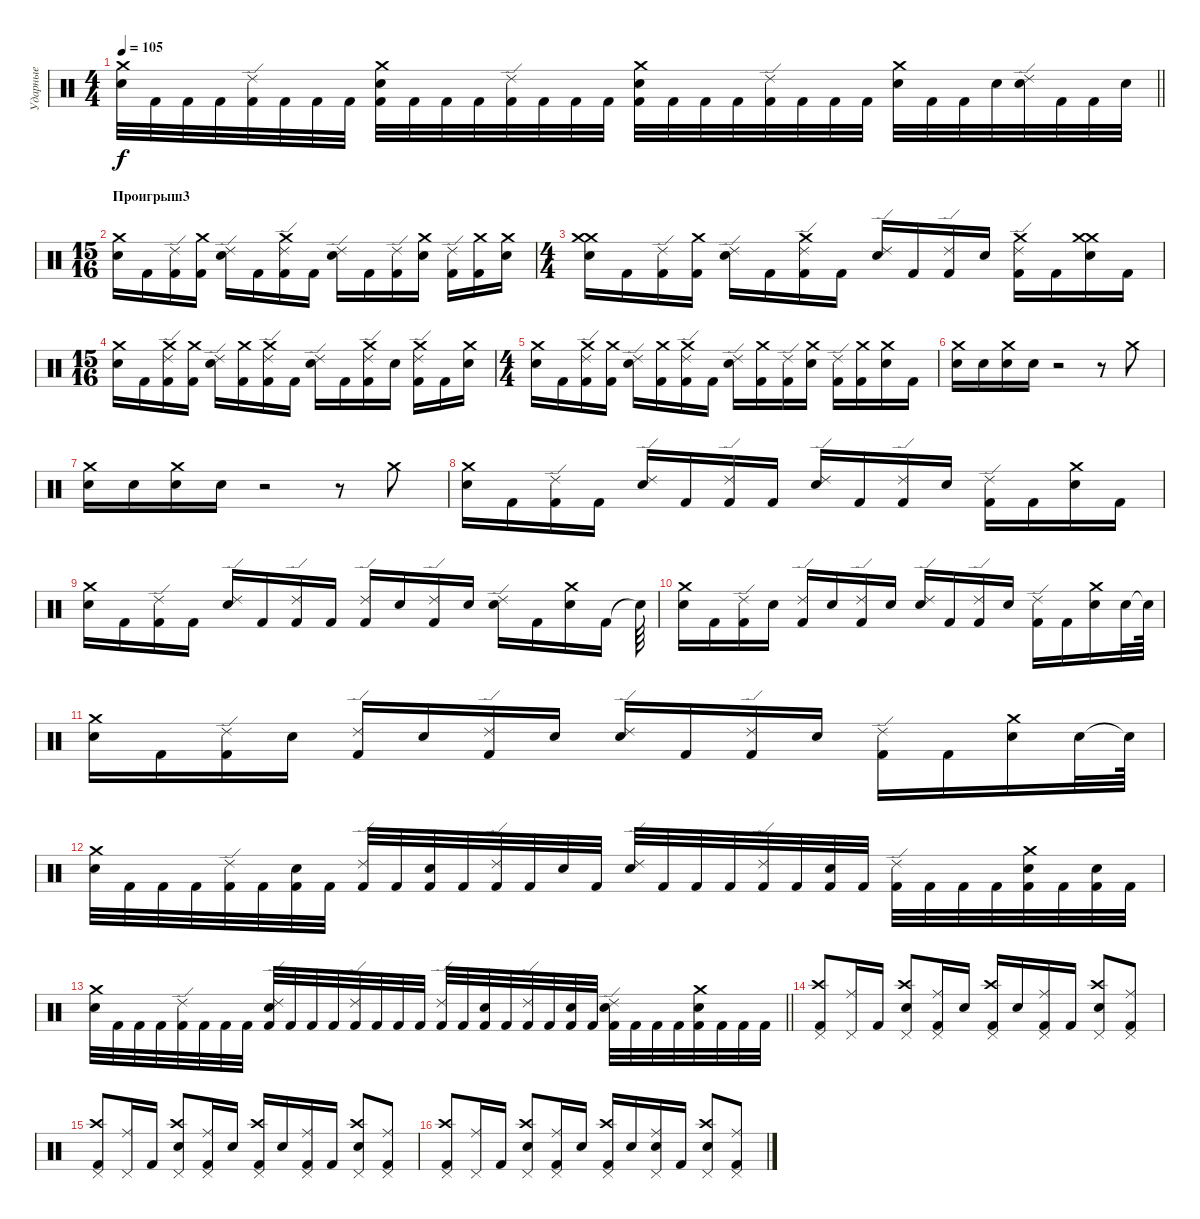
\track ("Ударные" "Ударные") {instrument percussion}
\staff {score}
\articulation defaults
\ts (4 4)
\tempo 105
\clef neutral
\barLineRight lightlight
\ks c
("Crash medium (hit)" "Electric Snare (hit)").32{dy f} "Kick (hit) 2".32 "Kick (hit) 2".32 "Kick (hit) 2".32 ("Ride (edge) 2" "Kick (hit) 2").32 "Kick (hit) 2".32 "Kick (hit) 2".32 "Kick (hit) 2".32 ("Crash medium (hit)" "Kick (hit) 2" "Electric Snare (hit)").32 "Kick (hit) 2".32 "Kick (hit) 2".32 "Kick (hit) 2".32 ("Ride (edge) 2" "Kick (hit) 2").32 "Kick (hit) 2".32 "Kick (hit) 2".32 "Kick (hit) 2".32 ("Crash medium (hit)" "Kick (hit) 2" "Electric Snare (hit)").32 "Kick (hit) 2".32 "Kick (hit) 2".32 "Kick (hit) 2".32 ("Ride (edge) 2" "Kick (hit) 2").32 "Kick (hit) 2".32 "Kick (hit) 2".32 "Kick (hit) 2".32 ("Crash medium (hit)" "Electric Snare (hit)").32 "Kick (hit) 2".32 "Kick (hit) 2".32 "Electric Snare (hit)".32 ("Ride (edge) 2" "Electric Snare (hit)").32 "Kick (hit) 2".32 "Kick (hit) 2".32 "Electric Snare (hit)".32 |
\ts (15 16)
\section ("" "Проигрыш3")
("Crash medium (hit)" "Electric Snare (hit)").16 "Kick (hit) 2".16 ("Ride (edge) 2" "Kick (hit) 2").16 ("Kick (hit) 2" "Crash medium (hit)").16 ("Ride (edge) 2" "Electric Snare (hit)").16 "Kick (hit) 2".16 ("Ride (edge) 2" "Kick (hit) 2" "Crash medium (hit)").16 "Kick (hit) 2".16 ("Ride (edge) 2" "Electric Snare (hit)").16 "Kick (hit) 2".16 ("Ride (edge) 2" "Kick (hit) 2").16 ("Electric Snare (hit)" "Crash medium (hit)").16 ("Ride (edge) 2" "Kick (hit) 2").16 ("Kick (hit) 2" "Crash medium (hit)").16 ("Crash medium (hit)" "Electric Snare (hit)").16 |
\ts (4 4)
("Crash medium (hit)" "Electric Snare (hit)" "Crash medium (hit)").16 "Kick (hit) 2".16 ("Ride (edge) 2" "Kick (hit) 2").16 ("Kick (hit) 2" "Crash medium (hit)").16 ("Ride (edge) 2" "Electric Snare (hit)").16 "Kick (hit) 2".16 ("Ride (edge) 2" "Kick (hit) 2" "Crash medium (hit)").16 "Kick (hit) 2".16 ("Ride (edge) 2" "Electric Snare (hit)").16 "Kick (hit) 2".16 ("Ride (edge) 2" "Kick (hit) 2").16 "Electric Snare (hit)".16 ("Ride (edge) 2" "Kick (hit) 2" "Crash medium (hit)").16 "Kick (hit) 2".16 ("Crash medium (hit)" "Electric Snare (hit)" "Crash medium (hit)").16 "Kick (hit) 2".16 |
\ts (15 16)
("Crash medium (hit)" "Electric Snare (hit)").16 "Kick (hit) 2".16 ("Ride (edge) 2" "Kick (hit) 2" "Crash medium (hit)").16 ("Kick (hit) 2" "Crash medium (hit)").16 ("Ride (edge) 2" "Electric Snare (hit)").16 ("Kick (hit) 2" "Crash medium (hit)").16 ("Ride (edge) 2" "Kick (hit) 2" "Crash medium (hit)").16 "Kick (hit) 2".16 ("Ride (edge) 2" "Electric Snare (hit)").16 "Kick (hit) 2".16 ("Ride (edge) 2" "Kick (hit) 2" "Crash medium (hit)").16 "Electric Snare (hit)".16 ("Ride (edge) 2" "Kick (hit) 2" "Crash medium (hit)").16 "Kick (hit) 2".16 ("Crash medium (hit)" "Electric Snare (hit)").16 |
\ts (4 4)
("Crash medium (hit)" "Electric Snare (hit)").16 "Kick (hit) 2".16 ("Ride (edge) 2" "Kick (hit) 2" "Crash medium (hit)").16 ("Kick (hit) 2" "Crash medium (hit)").16 ("Ride (edge) 2" "Electric Snare (hit)").16 ("Kick (hit) 2" "Crash medium (hit)").16 ("Ride (edge) 2" "Kick (hit) 2" "Crash medium (hit)").16 "Kick (hit) 2".16 ("Ride (edge) 2" "Electric Snare (hit)").16 ("Kick (hit) 2" "Crash medium (hit)").16 ("Ride (edge) 2" "Kick (hit) 2").16 ("Electric Snare (hit)" "Crash medium (hit)").16 ("Ride (edge) 2" "Kick (hit) 2").16 ("Kick (hit) 2" "Crash medium (hit)").16 ("Crash medium (hit)" "Electric Snare (hit)").16 "Kick (hit) 2".16 |
("Crash medium (hit)" "Electric Snare (hit)").16 "Electric Snare (hit)".16 ("Crash medium (hit)" "Electric Snare (hit)").16 "Electric Snare (hit)".16 r.2 r.8 "Crash medium (hit)".8 |
("Electric Snare (hit)" "Crash medium (hit)").16 "Electric Snare (hit)".16 ("Electric Snare (hit)" "Crash medium (hit)").16 "Electric Snare (hit)".16 r.2 r.8 "Crash medium (hit)".8 |
("Crash medium (hit)" "Electric Snare (hit)").16 "Kick (hit) 2".16 ("Ride (edge) 2" "Kick (hit) 2").16 "Kick (hit) 2".16 ("Ride (edge) 2" "Electric Snare (hit)").16 "Kick (hit) 2".16 ("Ride (edge) 2" "Kick (hit) 2").16 "Kick (hit) 2".16 ("Ride (edge) 2" "Electric Snare (hit)").16 "Kick (hit) 2".16 ("Ride (edge) 2" "Kick (hit) 2").16 "Electric Snare (hit)".16 ("Ride (edge) 2" "Kick (hit) 2").16 "Kick (hit) 2".16 ("Crash medium (hit)" "Electric Snare (hit)").16 "Kick (hit) 2".16 |
("Crash medium (hit)" "Electric Snare (hit)").16 "Kick (hit) 2".16 ("Ride (edge) 2" "Kick (hit) 2").16 "Kick (hit) 2".16 ("Ride (edge) 2" "Electric Snare (hit)").16 "Kick (hit) 2".16 ("Ride (edge) 2" "Kick (hit) 2").16 "Kick (hit) 2".16 ("Ride (edge) 2" "Kick (hit) 2").16 "Electric Snare (hit)".16 ("Ride (edge) 2" "Kick (hit) 2").16 "Electric Snare (hit)".16 ("Ride (edge) 2" "Electric Snare (hit)").16 "Kick (hit) 2".16 ("Crash medium (hit)" "Electric Snare (hit)").16 "Kick (hit) 2".16 "Snare (hit)"{t}.64 |
("Crash medium (hit)" "Electric Snare (hit)").16 "Kick (hit) 2".16 ("Ride (edge) 2" "Kick (hit) 2").16 "Electric Snare (hit)".16 ("Ride (edge) 2" "Kick (hit) 2").16 "Electric Snare (hit)".16 ("Ride (edge) 2" "Kick (hit) 2").16 "Electric Snare (hit)".16 ("Ride (edge) 2" "Electric Snare (hit)").16 "Kick (hit) 2".16 ("Ride (edge) 2" "Kick (hit) 2").16 "Electric Snare (hit)".16 ("Ride (edge) 2" "Kick (hit) 2").16 "Kick (hit) 2".16 ("Crash medium (hit)" "Electric Snare (hit)").16 "Electric Snare (hit)".32 "Snare (hit)"{t}.64 |
("Crash medium (hit)" "Electric Snare (hit)").16 "Kick (hit) 2".16 ("Ride (edge) 2" "Kick (hit) 2").16 "Electric Snare (hit)".16 ("Ride (edge) 2" "Kick (hit) 2").16 "Electric Snare (hit)".16 ("Ride (edge) 2" "Kick (hit) 2").16 "Electric Snare (hit)".16 ("Ride (edge) 2" "Electric Snare (hit)").16 "Kick (hit) 2".16 ("Ride (edge) 2" "Kick (hit) 2").16 "Electric Snare (hit)".16 ("Ride (edge) 2" "Kick (hit) 2").16 "Kick (hit) 2".16 ("Crash medium (hit)" "Electric Snare (hit)").16 "Electric Snare (hit)".32 "Snare (hit)"{t}.64 |
("Crash medium (hit)" "Electric Snare (hit)").32 "Kick (hit) 2".32 "Kick (hit) 2".32 "Kick (hit) 2".32 ("Ride (edge) 2" "Kick (hit) 2").32 "Kick (hit) 2".32 ("Kick (hit) 2" "Electric Snare (hit)").32 "Kick (hit) 2".32 ("Ride (edge) 2" "Kick (hit) 2").32 "Kick (hit) 2".32 ("Kick (hit) 2" "Electric Snare (hit)").32 "Kick (hit) 2".32 ("Ride (edge) 2" "Kick (hit) 2").32 "Kick (hit) 2".32 "Electric Snare (hit)".32 "Kick (hit) 2".32 ("Ride (edge) 2" "Electric Snare (hit)").32 "Kick (hit) 2".32 "Kick (hit) 2".32 "Kick (hit) 2".32 ("Ride (edge) 2" "Kick (hit) 2").32 "Kick (hit) 2".32 ("Kick (hit) 2" "Electric Snare (hit)").32 "Kick (hit) 2".32 ("Ride (edge) 2" "Kick (hit) 2").32 "Kick (hit) 2".32 "Kick (hit) 2".32 "Kick (hit) 2".32 ("Kick (hit) 2" "Crash medium (hit)" "Electric Snare (hit)").32 "Kick (hit) 2".32 ("Kick (hit) 2" "Electric Snare (hit)").32 "Kick (hit) 2".32 |
\barLineRight lightlight
("Crash medium (hit)" "Electric Snare (hit)").32 "Kick (hit) 2".32 "Kick (hit) 2".32 "Kick (hit) 2".32 ("Ride (edge) 2" "Kick (hit) 2").32 "Kick (hit) 2".32 "Kick (hit) 2".32 "Kick (hit) 2".32 ("Kick (hit) 2" "Ride (edge) 2" "Electric Snare (hit)").32 "Kick (hit) 2".32 "Kick (hit) 2".32 "Kick (hit) 2".32 ("Ride (edge) 2" "Kick (hit) 2").32 "Kick (hit) 2".32 "Kick (hit) 2".32 "Kick (hit) 2".32 ("Ride (edge) 2" "Kick (hit) 2").32 "Kick (hit) 2".32 ("Kick (hit) 2" "Electric Snare (hit)").32 "Kick (hit) 2".32 ("Ride (edge) 2" "Kick (hit) 2").32 "Kick (hit) 2".32 ("Kick (hit) 2" "Electric Snare (hit)").32 "Kick (hit) 2".32 ("Kick (hit) 2" "Ride (edge) 2" "Electric Snare (hit)").32 "Kick (hit) 2".32 "Kick (hit) 2".32 "Kick (hit) 2".32 ("Kick (hit) 2" "Crash medium (hit)" "Electric Snare (hit)").32 "Kick (hit) 2".32 "Kick (hit) 2".32 "Kick (hit) 2".32 |
("Kick (hit) 2" "Crash high (hit)" "Pedal Hi-Hat (hit)").8 ("Ride (middle)" "Pedal Hi-Hat (hit)").16 "Kick (hit) 2".16 ("Electric Snare (hit)" "Crash high (hit)" "Pedal Hi-Hat (hit)").8 ("Ride (middle)" "Kick (hit) 2" "Pedal Hi-Hat (hit)").16 "Electric Snare (hit)".16 ("Kick (hit) 2" "Crash high (hit)" "Pedal Hi-Hat (hit)").16 "Electric Snare (hit)".16 ("Ride (middle)" "Kick (hit) 2" "Pedal Hi-Hat (hit)").16 "Kick (hit) 2".16 ("Electric Snare (hit)" "Crash high (hit)" "Pedal Hi-Hat (hit)").8 ("Ride (middle)" "Kick (hit) 2" "Pedal Hi-Hat (hit)").8 |
("Kick (hit) 2" "Crash high (hit)" "Pedal Hi-Hat (hit)").8 ("Ride (middle)" "Pedal Hi-Hat (hit)").16 "Kick (hit) 2".16 ("Electric Snare (hit)" "Crash high (hit)" "Pedal Hi-Hat (hit)").8 ("Ride (middle)" "Kick (hit) 2" "Pedal Hi-Hat (hit)").16 "Electric Snare (hit)".16 ("Kick (hit) 2" "Crash high (hit)" "Pedal Hi-Hat (hit)").16 "Electric Snare (hit)".16 ("Ride (middle)" "Kick (hit) 2" "Pedal Hi-Hat (hit)").16 "Kick (hit) 2".16 ("Electric Snare (hit)" "Crash high (hit)" "Pedal Hi-Hat (hit)").8 ("Ride (middle)" "Kick (hit) 2" "Pedal Hi-Hat (hit)").8 |
("Kick (hit) 2" "Crash high (hit)" "Pedal Hi-Hat (hit)").8 ("Ride (middle)" "Pedal Hi-Hat (hit)").16 "Kick (hit) 2".16 ("Electric Snare (hit)" "Crash high (hit)" "Pedal Hi-Hat (hit)").8 ("Ride (middle)" "Kick (hit) 2" "Pedal Hi-Hat (hit)").16 "Electric Snare (hit)".16 ("Kick (hit) 2" "Crash high (hit)" "Pedal Hi-Hat (hit)").16 "Electric Snare (hit)".16 ("Ride (middle)" "Electric Snare (hit)" "Pedal Hi-Hat (hit)").16 "Kick (hit) 2".16 ("Electric Snare (hit)" "Crash high (hit)" "Pedal Hi-Hat (hit)").8 ("Ride (middle)" "Kick (hit) 2" "Pedal Hi-Hat (hit)").8
